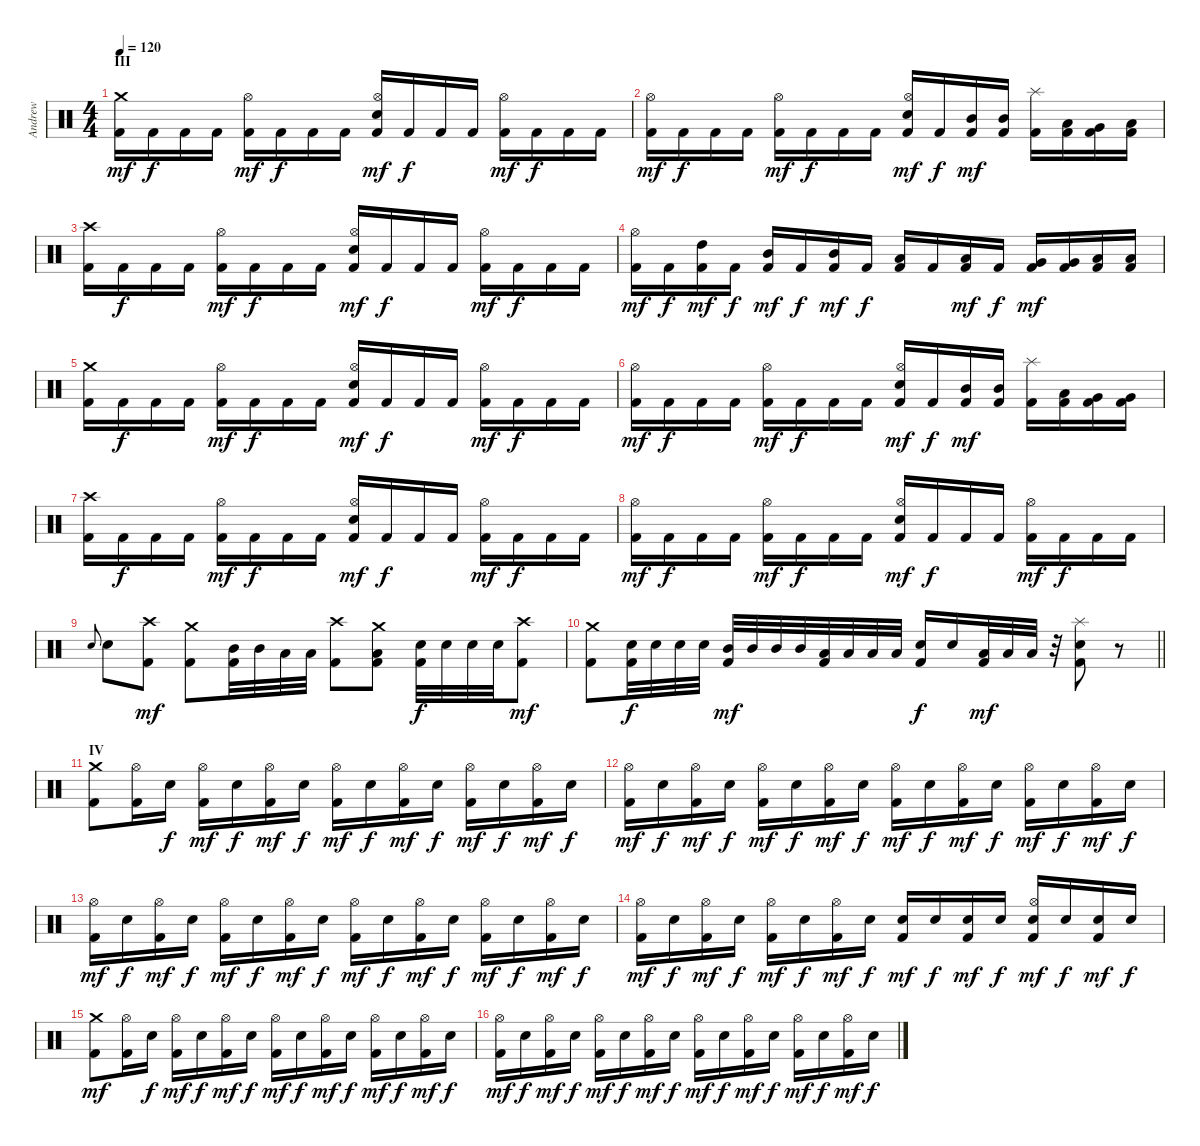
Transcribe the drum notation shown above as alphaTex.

\track ("Andrew" "Andrew") {instrument percussion}
\staff {score}
\articulation defaults
\ts (4 4)
\section ("" "III")
\tempo 120
\clef neutral
\ks c
("Crash medium (hit)" "Kick (hit) 2").16{dy mf} "Kick (hit) 2".16{dy f} "Kick (hit) 2".16 "Kick (hit) 2".16 ("Hi-Hat (open)" "Kick (hit) 2").16{dy mf} "Kick (hit) 2".16{dy f} "Kick (hit) 2".16 "Kick (hit) 2".16 ("Hi-Hat (open)" "Electric Snare (hit)" "Kick (hit) 2").16{dy mf} "Kick (hit) 2".16{dy f} "Kick (hit) 2".16 "Kick (hit) 2".16 ("Hi-Hat (open)" "Kick (hit) 2").16{dy mf} "Kick (hit) 2".16{dy f} "Kick (hit) 2".16 "Kick (hit) 2".16 |
("Hi-Hat (open)" "Kick (hit) 2").16{dy mf} "Kick (hit) 2".16{dy f} "Kick (hit) 2".16 "Kick (hit) 2".16 ("Hi-Hat (open)" "Kick (hit) 2").16{dy mf} "Kick (hit) 2".16{dy f} "Kick (hit) 2".16 "Kick (hit) 2".16 ("Hi-Hat (open)" "Electric Snare (hit)" "Kick (hit) 2").16{dy mf} "Kick (hit) 2".16{dy f} ("Mid Tom (hit)" "Kick (hit) 2").16{dy mf} ("Mid Tom (hit)" "Kick (hit) 2").16 ("Splash (hit)" "Kick (hit) 2").16 ("Low Tom (hit)" "Kick (hit) 2").16 ("Very Low Tom (hit)" "Kick (hit) 2").16 ("Low Floor Tom (hit)" "Kick (hit) 2").16 |
("Crash high (hit)" "Kick (hit) 2").16 "Kick (hit) 2".16{dy f} "Kick (hit) 2".16 "Kick (hit) 2".16 ("Hi-Hat (open)" "Kick (hit) 2").16{dy mf} "Kick (hit) 2".16{dy f} "Kick (hit) 2".16 "Kick (hit) 2".16 ("Hi-Hat (open)" "Electric Snare (hit)" "Kick (hit) 2").16{dy mf} "Kick (hit) 2".16{dy f} "Kick (hit) 2".16 "Kick (hit) 2".16 ("Hi-Hat (open)" "Kick (hit) 2").16{dy mf} "Kick (hit) 2".16{dy f} "Kick (hit) 2".16 "Kick (hit) 2".16 |
("Hi-Hat (open)" "Kick (hit) 2").16{dy mf} "Kick (hit) 2".16{dy f} ("High Tom (hit)" "Kick (hit) 2").16{dy mf} "Kick (hit) 2".16{dy f} ("Mid Tom (hit)" "Kick (hit) 2").16{dy mf} "Kick (hit) 2".16{dy f} ("Mid Tom (hit)" "Kick (hit) 2").16{dy mf} "Kick (hit) 2".16{dy f} ("Low Tom (hit)" "Kick (hit) 2").16 "Kick (hit) 2".16 ("Low Tom (hit)" "Kick (hit) 2").16{dy mf} "Kick (hit) 2".16{dy f} ("Very Low Tom (hit)" "Kick (hit) 2").16{dy mf} ("Very Low Tom (hit)" "Kick (hit) 2").16 ("Low Floor Tom (hit)" "Kick (hit) 2").16 ("Low Floor Tom (hit)" "Kick (hit) 2").16 |
("Crash medium (hit)" "Kick (hit) 2").16 "Kick (hit) 2".16{dy f} "Kick (hit) 2".16 "Kick (hit) 2".16 ("Hi-Hat (open)" "Kick (hit) 2").16{dy mf} "Kick (hit) 2".16{dy f} "Kick (hit) 2".16 "Kick (hit) 2".16 ("Hi-Hat (open)" "Electric Snare (hit)" "Kick (hit) 2").16{dy mf} "Kick (hit) 2".16{dy f} "Kick (hit) 2".16 "Kick (hit) 2".16 ("Hi-Hat (open)" "Kick (hit) 2").16{dy mf} "Kick (hit) 2".16{dy f} "Kick (hit) 2".16 "Kick (hit) 2".16 |
("Hi-Hat (open)" "Kick (hit) 2").16{dy mf} "Kick (hit) 2".16{dy f} "Kick (hit) 2".16 "Kick (hit) 2".16 ("Hi-Hat (open)" "Kick (hit) 2").16{dy mf} "Kick (hit) 2".16{dy f} "Kick (hit) 2".16 "Kick (hit) 2".16 ("Hi-Hat (open)" "Electric Snare (hit)" "Kick (hit) 2").16{dy mf} "Kick (hit) 2".16{dy f} ("Mid Tom (hit)" "Kick (hit) 2").16{dy mf} ("Mid Tom (hit)" "Kick (hit) 2").16 ("Splash (hit)" "Kick (hit) 2").16 ("Low Tom (hit)" "Kick (hit) 2").16 ("Very Low Tom (hit)" "Kick (hit) 2").16 ("Very Low Tom (hit)" "Kick (hit) 2").16 |
("Crash high (hit)" "Kick (hit) 2").16 "Kick (hit) 2".16{dy f} "Kick (hit) 2".16 "Kick (hit) 2".16 ("Hi-Hat (open)" "Kick (hit) 2").16{dy mf} "Kick (hit) 2".16{dy f} "Kick (hit) 2".16 "Kick (hit) 2".16 ("Hi-Hat (open)" "Electric Snare (hit)" "Kick (hit) 2").16{dy mf} "Kick (hit) 2".16{dy f} "Kick (hit) 2".16 "Kick (hit) 2".16 ("Hi-Hat (open)" "Kick (hit) 2").16{dy mf} "Kick (hit) 2".16{dy f} "Kick (hit) 2".16 "Kick (hit) 2".16 |
("Hi-Hat (open)" "Kick (hit) 2").16{dy mf} "Kick (hit) 2".16{dy f} "Kick (hit) 2".16 "Kick (hit) 2".16 ("Hi-Hat (open)" "Kick (hit) 2").16{dy mf} "Kick (hit) 2".16{dy f} "Kick (hit) 2".16 "Kick (hit) 2".16 ("Hi-Hat (open)" "Electric Snare (hit)" "Kick (hit) 2").16{dy mf} "Kick (hit) 2".16{dy f} "Kick (hit) 2".16 "Kick (hit) 2".16 ("Hi-Hat (open)" "Kick (hit) 2").16{dy mf} "Kick (hit) 2".16{dy f} "Kick (hit) 2".16 "Kick (hit) 2".16 |
"Electric Snare (hit)".8{gr onbeat} "Electric Snare (hit)".8 ("Crash high (hit)" "Kick (hit) 2").8{dy mf} ("Crash medium (hit)" "Kick (hit) 2").8 ("Mid Tom (hit)" "Kick (hit) 2").32 "Mid Tom (hit)".32 "Low Tom (hit)".32 "Low Tom (hit)".32 ("Crash high (hit)" "Kick (hit) 2").8 ("Crash medium (hit)" "Low Tom (hit)" "Kick (hit) 2").8 ("Electric Snare (hit)" "Kick (hit) 2").32{dy f} "Electric Snare (hit)".32 "Electric Snare (hit)".32 "Electric Snare (hit)".32 ("Crash high (hit)" "Kick (hit) 2").8{dy mf} |
\barLineRight lightlight
("Crash medium (hit)" "Kick (hit) 2").8 ("Electric Snare (hit)" "Kick (hit) 2").32{dy f} "Electric Snare (hit)".32 "Electric Snare (hit)".32 "Electric Snare (hit)".32 ("Mid Tom (hit)" "Kick (hit) 2").32{dy mf} "Mid Tom (hit)".32 "Mid Tom (hit)".32 "Mid Tom (hit)".32 ("Low Tom (hit)" "Kick (hit) 2").32 "Low Tom (hit)".32 "Low Tom (hit)".32 "Low Tom (hit)".32 ("Electric Snare (hit)" "Kick (hit) 2").16{dy f} "Electric Snare (hit)".16 ("Low Tom (hit)" "Kick (hit) 2").32{dy mf} "Low Tom (hit)".32 "Low Tom (hit)".32 r.32 ("Splash (hit)" "Electric Snare (hit)" "Kick (hit) 2").8 r.8 |
\section ("" "IV")
("Crash medium (hit)" "Kick (hit) 2").8 ("Hi-Hat (open)" "Kick (hit) 2").16 "Electric Snare (hit)".16{dy f} ("Hi-Hat (open)" "Kick (hit) 2").16{dy mf} "Electric Snare (hit)".16{dy f} ("Hi-Hat (open)" "Kick (hit) 2").16{dy mf} "Electric Snare (hit)".16{dy f} ("Hi-Hat (open)" "Kick (hit) 2").16{dy mf} "Electric Snare (hit)".16{dy f} ("Hi-Hat (open)" "Kick (hit) 2").16{dy mf} "Electric Snare (hit)".16{dy f} ("Hi-Hat (open)" "Kick (hit) 2").16{dy mf} "Electric Snare (hit)".16{dy f} ("Hi-Hat (open)" "Kick (hit) 2").16{dy mf} "Electric Snare (hit)".16{dy f} |
("Hi-Hat (open)" "Kick (hit) 2").16{dy mf} "Electric Snare (hit)".16{dy f} ("Hi-Hat (open)" "Kick (hit) 2").16{dy mf} "Electric Snare (hit)".16{dy f} ("Hi-Hat (open)" "Kick (hit) 2").16{dy mf} "Electric Snare (hit)".16{dy f} ("Hi-Hat (open)" "Kick (hit) 2").16{dy mf} "Electric Snare (hit)".16{dy f} ("Hi-Hat (open)" "Kick (hit) 2").16{dy mf} "Electric Snare (hit)".16{dy f} ("Hi-Hat (open)" "Kick (hit) 2").16{dy mf} "Electric Snare (hit)".16{dy f} ("Hi-Hat (open)" "Kick (hit) 2").16{dy mf} "Electric Snare (hit)".16{dy f} ("Hi-Hat (open)" "Kick (hit) 2").16{dy mf} "Electric Snare (hit)".16{dy f} |
("Hi-Hat (open)" "Kick (hit) 2").16{dy mf} "Electric Snare (hit)".16{dy f} ("Hi-Hat (open)" "Kick (hit) 2").16{dy mf} "Electric Snare (hit)".16{dy f} ("Hi-Hat (open)" "Kick (hit) 2").16{dy mf} "Electric Snare (hit)".16{dy f} ("Hi-Hat (open)" "Kick (hit) 2").16{dy mf} "Electric Snare (hit)".16{dy f} ("Hi-Hat (open)" "Kick (hit) 2").16{dy mf} "Electric Snare (hit)".16{dy f} ("Hi-Hat (open)" "Kick (hit) 2").16{dy mf} "Electric Snare (hit)".16{dy f} ("Hi-Hat (open)" "Kick (hit) 2").16{dy mf} "Electric Snare (hit)".16{dy f} ("Hi-Hat (open)" "Kick (hit) 2").16{dy mf} "Electric Snare (hit)".16{dy f} |
("Hi-Hat (open)" "Kick (hit) 2").16{dy mf} "Electric Snare (hit)".16{dy f} ("Hi-Hat (open)" "Kick (hit) 2").16{dy mf} "Electric Snare (hit)".16{dy f} ("Hi-Hat (open)" "Kick (hit) 2").16{dy mf} "Electric Snare (hit)".16{dy f} ("Hi-Hat (open)" "Kick (hit) 2").16{dy mf} "Electric Snare (hit)".16{dy f} ("Electric Snare (hit)" "Kick (hit) 2").16{dy mf} "Electric Snare (hit)".16{dy f} ("Electric Snare (hit)" "Kick (hit) 2").16{dy mf} "Electric Snare (hit)".16{dy f} ("Hi-Hat (open)" "Electric Snare (hit)" "Kick (hit) 2").16{dy mf} "Electric Snare (hit)".16{dy f} ("Electric Snare (hit)" "Kick (hit) 2").16{dy mf} "Electric Snare (hit)".16{dy f} |
("Crash medium (hit)" "Kick (hit) 2").8{dy mf} ("Hi-Hat (open)" "Kick (hit) 2").16 "Electric Snare (hit)".16{dy f} ("Hi-Hat (open)" "Kick (hit) 2").16{dy mf} "Electric Snare (hit)".16{dy f} ("Hi-Hat (open)" "Kick (hit) 2").16{dy mf} "Electric Snare (hit)".16{dy f} ("Hi-Hat (open)" "Kick (hit) 2").16{dy mf} "Electric Snare (hit)".16{dy f} ("Hi-Hat (open)" "Kick (hit) 2").16{dy mf} "Electric Snare (hit)".16{dy f} ("Hi-Hat (open)" "Kick (hit) 2").16{dy mf} "Electric Snare (hit)".16{dy f} ("Hi-Hat (open)" "Kick (hit) 2").16{dy mf} "Electric Snare (hit)".16{dy f} |
("Hi-Hat (open)" "Kick (hit) 2").16{dy mf} "Electric Snare (hit)".16{dy f} ("Hi-Hat (open)" "Kick (hit) 2").16{dy mf} "Electric Snare (hit)".16{dy f} ("Hi-Hat (open)" "Kick (hit) 2").16{dy mf} "Electric Snare (hit)".16{dy f} ("Hi-Hat (open)" "Kick (hit) 2").16{dy mf} "Electric Snare (hit)".16{dy f} ("Hi-Hat (open)" "Kick (hit) 2").16{dy mf} "Electric Snare (hit)".16{dy f} ("Hi-Hat (open)" "Kick (hit) 2").16{dy mf} "Electric Snare (hit)".16{dy f} ("Hi-Hat (open)" "Kick (hit) 2").16{dy mf} "Electric Snare (hit)".16{dy f} ("Hi-Hat (open)" "Kick (hit) 2").16{dy mf} "Electric Snare (hit)".16{dy f}
